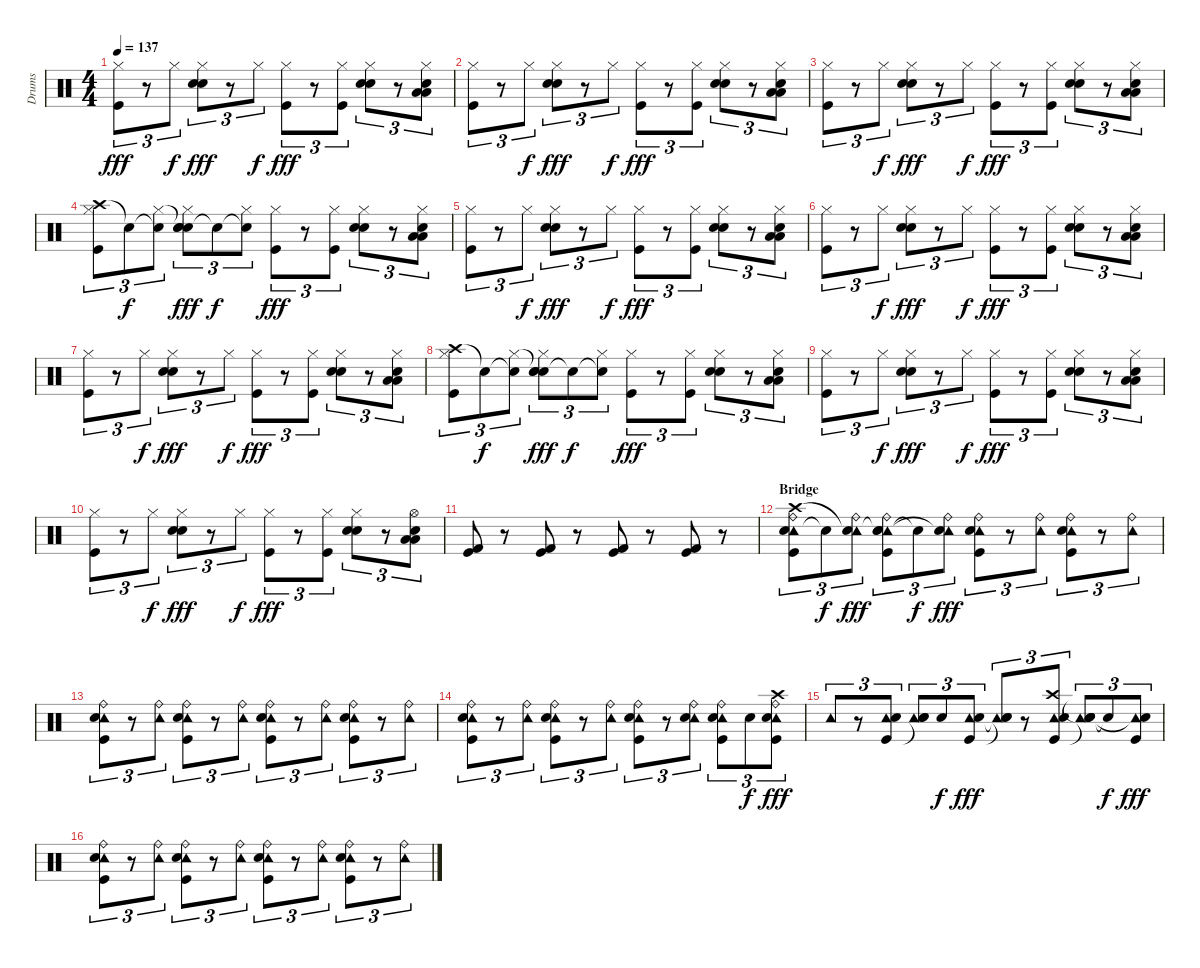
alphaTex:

\track ("Drums" "Drums") {instrument percussion}
\staff {score}
\articulation defaults
\ts (4 4)
\tempo 137
\clef neutral
\ks c
("Hi-Hat (closed)" "Kick (hit)").8{tu (3 2) dy fff} r.8{tu (3 2)} "Hi-Hat (closed)".8{tu (3 2) dy f} ("Hand Clap (hit)" "Hi-Hat (closed)" "Electric Snare (hit)").8{tu (3 2) dy fff} r.8{tu (3 2)} "Hi-Hat (closed)".8{tu (3 2) dy f} ("Hi-Hat (closed)" "Kick (hit)").8{tu (3 2) dy fff} r.8{tu (3 2)} ("Hi-Hat (closed)" "Kick (hit)").8{tu (3 2)} ("Hand Clap (hit)" "Hi-Hat (closed)" "Electric Snare (hit)").8{tu (3 2)} r.8{tu (3 2)} ("Low Tom (hit)" "Low Floor Tom (hit)" "Hi-Hat (closed)" "Electric Snare (hit)").8{tu (3 2)} |
("Hi-Hat (closed)" "Kick (hit)").8{tu (3 2)} r.8{tu (3 2)} "Hi-Hat (closed)".8{tu (3 2) dy f} ("Hand Clap (hit)" "Hi-Hat (closed)" "Electric Snare (hit)").8{tu (3 2) dy fff} r.8{tu (3 2)} "Hi-Hat (closed)".8{tu (3 2) dy f} ("Hi-Hat (closed)" "Kick (hit)").8{tu (3 2) dy fff} r.8{tu (3 2)} ("Hi-Hat (closed)" "Kick (hit)").8{tu (3 2)} ("Hand Clap (hit)" "Hi-Hat (closed)" "Electric Snare (hit)").8{tu (3 2)} r.8{tu (3 2)} ("Low Tom (hit)" "Low Floor Tom (hit)" "Hi-Hat (closed)" "Electric Snare (hit)").8{tu (3 2)} |
("Hi-Hat (closed)" "Kick (hit)").8{tu (3 2)} r.8{tu (3 2)} "Hi-Hat (closed)".8{tu (3 2) dy f} ("Hand Clap (hit)" "Hi-Hat (closed)" "Electric Snare (hit)").8{tu (3 2) dy fff} r.8{tu (3 2)} "Hi-Hat (closed)".8{tu (3 2) dy f} ("Hi-Hat (closed)" "Kick (hit)").8{tu (3 2) dy fff} r.8{tu (3 2)} ("Hi-Hat (closed)" "Kick (hit)").8{tu (3 2)} ("Hand Clap (hit)" "Hi-Hat (closed)" "Electric Snare (hit)").8{tu (3 2)} r.8{tu (3 2)} ("Low Tom (hit)" "Low Floor Tom (hit)" "Hi-Hat (closed)" "Electric Snare (hit)").8{tu (3 2)} |
("Crash high (hit)" "Hi-Hat (closed)" "Kick (hit)").8{tu (3 2)} "Snare (hit)"{t}.8{tu (3 2) dy f} ("Snare (hit)"{t} "Hi-Hat (closed)").8{tu (3 2)} ("Hand Clap (hit)" "Hand Clap (hit)"{t} "Hi-Hat (closed)" "Electric Snare (hit)").8{tu (3 2) dy fff} "Snare (hit)"{t}.8{tu (3 2) dy f} ("Snare (hit)"{t} "Hi-Hat (closed)").8{tu (3 2)} ("Hi-Hat (closed)" "Kick (hit)").8{tu (3 2) dy fff} r.8{tu (3 2)} ("Hi-Hat (closed)" "Kick (hit)").8{tu (3 2)} ("Hand Clap (hit)" "Hi-Hat (closed)" "Electric Snare (hit)").8{tu (3 2)} r.8{tu (3 2)} ("Low Tom (hit)" "Low Floor Tom (hit)" "Hi-Hat (closed)" "Electric Snare (hit)").8{tu (3 2)} |
("Hi-Hat (closed)" "Kick (hit)").8{tu (3 2)} r.8{tu (3 2)} "Hi-Hat (closed)".8{tu (3 2) dy f} ("Hand Clap (hit)" "Hi-Hat (closed)" "Electric Snare (hit)").8{tu (3 2) dy fff} r.8{tu (3 2)} "Hi-Hat (closed)".8{tu (3 2) dy f} ("Hi-Hat (closed)" "Kick (hit)").8{tu (3 2) dy fff} r.8{tu (3 2)} ("Hi-Hat (closed)" "Kick (hit)").8{tu (3 2)} ("Hand Clap (hit)" "Hi-Hat (closed)" "Electric Snare (hit)").8{tu (3 2)} r.8{tu (3 2)} ("Low Tom (hit)" "Low Floor Tom (hit)" "Hi-Hat (closed)" "Electric Snare (hit)").8{tu (3 2)} |
("Hi-Hat (closed)" "Kick (hit)").8{tu (3 2)} r.8{tu (3 2)} "Hi-Hat (closed)".8{tu (3 2) dy f} ("Hand Clap (hit)" "Hi-Hat (closed)" "Electric Snare (hit)").8{tu (3 2) dy fff} r.8{tu (3 2)} "Hi-Hat (closed)".8{tu (3 2) dy f} ("Hi-Hat (closed)" "Kick (hit)").8{tu (3 2) dy fff} r.8{tu (3 2)} ("Hi-Hat (closed)" "Kick (hit)").8{tu (3 2)} ("Hand Clap (hit)" "Hi-Hat (closed)" "Electric Snare (hit)").8{tu (3 2)} r.8{tu (3 2)} ("Low Tom (hit)" "Low Floor Tom (hit)" "Hi-Hat (closed)" "Electric Snare (hit)").8{tu (3 2)} |
("Hi-Hat (closed)" "Kick (hit)").8{tu (3 2)} r.8{tu (3 2)} "Hi-Hat (closed)".8{tu (3 2) dy f} ("Hand Clap (hit)" "Hi-Hat (closed)" "Electric Snare (hit)").8{tu (3 2) dy fff} r.8{tu (3 2)} "Hi-Hat (closed)".8{tu (3 2) dy f} ("Hi-Hat (closed)" "Kick (hit)").8{tu (3 2) dy fff} r.8{tu (3 2)} ("Hi-Hat (closed)" "Kick (hit)").8{tu (3 2)} ("Hand Clap (hit)" "Hi-Hat (closed)" "Electric Snare (hit)").8{tu (3 2)} r.8{tu (3 2)} ("Low Tom (hit)" "Low Floor Tom (hit)" "Hi-Hat (closed)" "Electric Snare (hit)").8{tu (3 2)} |
("Crash high (hit)" "Hi-Hat (closed)" "Kick (hit)").8{tu (3 2)} "Snare (hit)"{t}.8{tu (3 2) dy f} ("Snare (hit)"{t} "Hi-Hat (closed)").8{tu (3 2)} ("Hand Clap (hit)" "Hand Clap (hit)"{t} "Hi-Hat (closed)" "Electric Snare (hit)").8{tu (3 2) dy fff} "Snare (hit)"{t}.8{tu (3 2) dy f} ("Snare (hit)"{t} "Hi-Hat (closed)").8{tu (3 2)} ("Hi-Hat (closed)" "Kick (hit)").8{tu (3 2) dy fff} r.8{tu (3 2)} ("Hi-Hat (closed)" "Kick (hit)").8{tu (3 2)} ("Hand Clap (hit)" "Hi-Hat (closed)" "Electric Snare (hit)").8{tu (3 2)} r.8{tu (3 2)} ("Low Tom (hit)" "Low Floor Tom (hit)" "Hi-Hat (closed)" "Electric Snare (hit)").8{tu (3 2)} |
("Hi-Hat (closed)" "Kick (hit)").8{tu (3 2)} r.8{tu (3 2)} "Hi-Hat (closed)".8{tu (3 2) dy f} ("Hand Clap (hit)" "Hi-Hat (closed)" "Electric Snare (hit)").8{tu (3 2) dy fff} r.8{tu (3 2)} "Hi-Hat (closed)".8{tu (3 2) dy f} ("Hi-Hat (closed)" "Kick (hit)").8{tu (3 2) dy fff} r.8{tu (3 2)} ("Hi-Hat (closed)" "Kick (hit)").8{tu (3 2)} ("Hand Clap (hit)" "Hi-Hat (closed)" "Electric Snare (hit)").8{tu (3 2)} r.8{tu (3 2)} ("Low Tom (hit)" "Low Floor Tom (hit)" "Hi-Hat (closed)" "Electric Snare (hit)").8{tu (3 2)} |
("Hi-Hat (closed)" "Kick (hit)").8{tu (3 2)} r.8{tu (3 2)} "Hi-Hat (closed)".8{tu (3 2) dy f} ("Hand Clap (hit)" "Hi-Hat (closed)" "Electric Snare (hit)").8{tu (3 2) dy fff} r.8{tu (3 2)} "Hi-Hat (closed)".8{tu (3 2) dy f} ("Hi-Hat (closed)" "Kick (hit)").8{tu (3 2) dy fff} r.8{tu (3 2)} ("Hi-Hat (closed)" "Kick (hit)").8{tu (3 2)} ("Hand Clap (hit)" "Hi-Hat (closed)" "Electric Snare (hit)").8{tu (3 2)} r.8{tu (3 2)} ("Low Tom (hit)" "Low Floor Tom (hit)" "Hi-Hat (open)" "Electric Snare (hit)").8{tu (3 2)} |
("Kick (hit) 2" "Kick (hit)").8 r.8 ("Kick (hit) 2" "Kick (hit)").8 r.8 ("Kick (hit) 2" "Kick (hit)").8 r.8 ("Kick (hit) 2" "Kick (hit)").8 r.8 |
\section ("" "Bridge")
("Tambourine (hit)" "Crash high (hit)" "Ride (bell)" "Electric Snare (hit)" "Kick (hit)").8{tu (3 2)} "Snare (hit)"{t}.8{tu (3 2) dy f} ("Tambourine (hit)" "Snare (hit)"{t} "Ride (bell)").8{tu (3 2) dy fff} ("Tambourine (hit)" "Snare (hit)"{t} "Ride (bell)" "Electric Snare (hit)" "Kick (hit)").8{tu (3 2)} "Snare (hit)"{t}.8{tu (3 2) dy f} ("Tambourine (hit)" "Snare (hit)"{t} "Ride (bell)").8{tu (3 2) dy fff} ("Tambourine (hit)" "Ride (bell)" "Electric Snare (hit)" "Kick (hit)").8{tu (3 2)} r.8{tu (3 2)} ("Tambourine (hit)" "Ride (bell)").8{tu (3 2)} ("Tambourine (hit)" "Ride (bell)" "Electric Snare (hit)" "Kick (hit)").8{tu (3 2)} r.8{tu (3 2)} ("Tambourine (hit)" "Ride (bell)").8{tu (3 2)} |
("Tambourine (hit)" "Ride (bell)" "Electric Snare (hit)" "Kick (hit)").8{tu (3 2)} r.8{tu (3 2)} ("Tambourine (hit)" "Ride (bell)").8{tu (3 2)} ("Tambourine (hit)" "Ride (bell)" "Electric Snare (hit)" "Kick (hit)").8{tu (3 2)} r.8{tu (3 2)} ("Tambourine (hit)" "Ride (bell)").8{tu (3 2)} ("Tambourine (hit)" "Ride (bell)" "Electric Snare (hit)" "Kick (hit)").8{tu (3 2)} r.8{tu (3 2)} ("Tambourine (hit)" "Ride (bell)").8{tu (3 2)} ("Tambourine (hit)" "Ride (bell)" "Electric Snare (hit)" "Kick (hit)").8{tu (3 2)} r.8{tu (3 2)} ("Tambourine (hit)" "Ride (bell)").8{tu (3 2)} |
("Tambourine (hit)" "Ride (bell)" "Electric Snare (hit)" "Kick (hit)").8{tu (3 2)} r.8{tu (3 2)} ("Tambourine (hit)" "Ride (bell)").8{tu (3 2)} ("Tambourine (hit)" "Ride (bell)" "Electric Snare (hit)" "Kick (hit)").8{tu (3 2)} r.8{tu (3 2)} ("Tambourine (hit)" "Ride (bell)").8{tu (3 2)} ("Tambourine (hit)" "Ride (bell)" "Electric Snare (hit)" "Kick (hit)").8{tu (3 2)} r.8{tu (3 2)} ("Tambourine (hit)" "Ride (bell)" "Electric Snare (hit)").8{tu (3 2)} ("Tambourine (hit)" "Ride (bell)" "Electric Snare (hit)" "Kick (hit)").8{tu (3 2)} "Electric Snare (hit)".8{tu (3 2) dy f} ("Tambourine (hit)" "Crash high (hit)" "Ride (bell)" "Electric Snare (hit)" "Kick (hit)").8{tu (3 2) dy fff} |
"Tambourine (hit)".8{tu (3 2)} r.8{tu (3 2)} ("Tambourine (hit)" "Electric Snare (hit)" "Kick (hit)").8{tu (3 2)} ("Tambourine (hit)" "Electric Snare (hit)" "Snare (hit)"{t}).8{tu (3 2)} "Electric Snare (hit)".8{tu (3 2) dy f} ("Tambourine (hit)" "Electric Snare (hit)" "Kick (hit)").8{tu (3 2) dy fff} ("Tambourine (hit)" "Snare (hit)"{t} "Snare (hit)"{t}).8{tu (3 2)} r.8{tu (3 2)} ("Tambourine (hit)" "Crash high (hit)" "Electric Snare (hit)" "Kick (hit)").8{tu (3 2)} ("Tambourine (hit)" "Snare (hit)"{t} "Electric Snare (hit)" "Snare (hit)"{t}).8{tu (3 2)} "Snare (hit)"{t}.8{tu (3 2) dy f} ("Tambourine (hit)" "Snare (hit)"{t} "Kick (hit)").8{tu (3 2) dy fff} |
("Tambourine (hit)" "Ride (bell)" "Electric Snare (hit)" "Kick (hit)").8{tu (3 2)} r.8{tu (3 2)} ("Tambourine (hit)" "Ride (bell)").8{tu (3 2)} ("Tambourine (hit)" "Ride (bell)" "Electric Snare (hit)" "Kick (hit)").8{tu (3 2)} r.8{tu (3 2)} ("Tambourine (hit)" "Ride (bell)").8{tu (3 2)} ("Tambourine (hit)" "Ride (bell)" "Electric Snare (hit)" "Kick (hit)").8{tu (3 2)} r.8{tu (3 2)} ("Tambourine (hit)" "Ride (bell)").8{tu (3 2)} ("Tambourine (hit)" "Ride (bell)" "Electric Snare (hit)" "Kick (hit)").8{tu (3 2)} r.8{tu (3 2)} ("Tambourine (hit)" "Ride (bell)").8{tu (3 2)}
